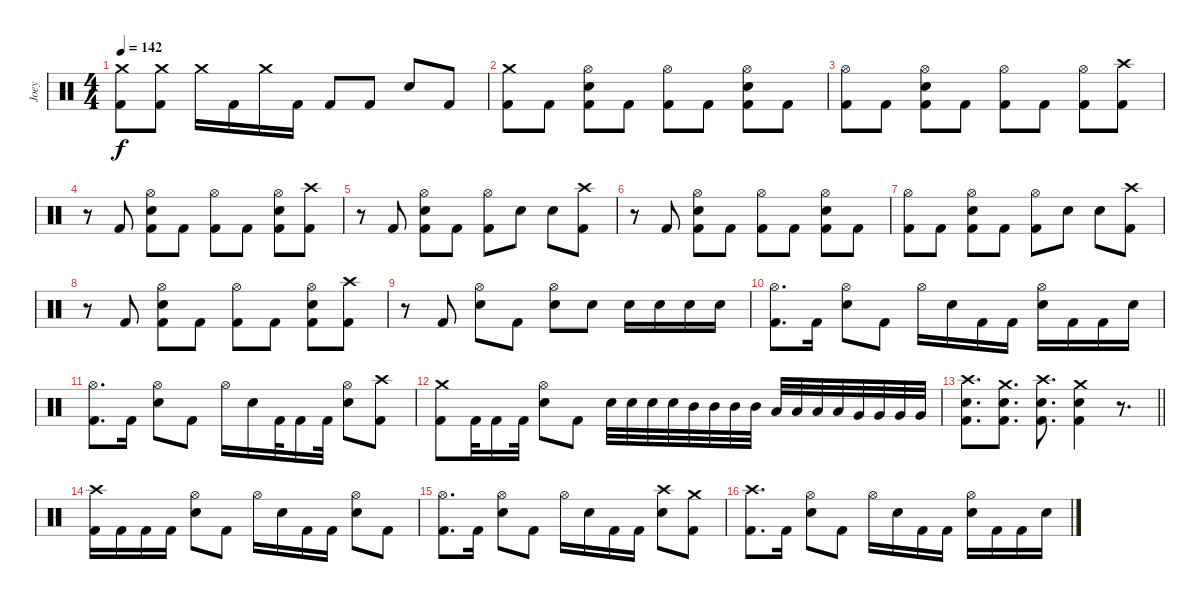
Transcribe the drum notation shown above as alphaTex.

\track ("Joey" "Joey") {instrument percussion}
\staff {score}
\articulation defaults
\ts (4 4)
\tempo 142
\clef neutral
\ks c
("Crash medium (hit)" "Kick (hit) 2").8{dy f} ("Crash medium (hit)" "Kick (hit) 2").8 "Crash medium (hit)".16 "Kick (hit) 2".16 "Crash medium (hit)".16 "Kick (hit) 2".16 "Kick (hit) 2".8 "Kick (hit) 2".8 "Electric Snare (hit)".8 "Kick (hit) 2".8 |
("Crash medium (hit)" "Kick (hit) 2").8 "Kick (hit) 2".8 ("Hi-Hat (open)" "Electric Snare (hit)" "Kick (hit) 2").8 "Kick (hit) 2".8 ("Hi-Hat (open)" "Kick (hit) 2").8 "Kick (hit) 2".8 ("Hi-Hat (open)" "Electric Snare (hit)" "Kick (hit) 2").8 "Kick (hit) 2".8 |
("Hi-Hat (open)" "Kick (hit) 2").8 "Kick (hit) 2".8 ("Hi-Hat (open)" "Electric Snare (hit)" "Kick (hit) 2").8 "Kick (hit) 2".8 ("Hi-Hat (open)" "Kick (hit) 2").8 "Kick (hit) 2".8 ("Hi-Hat (open)" "Kick (hit) 2").8 ("Crash high (hit)" "Kick (hit) 2").8 |
r.8 "Kick (hit) 2".8 ("Hi-Hat (open)" "Electric Snare (hit)" "Kick (hit) 2").8 "Kick (hit) 2".8 ("Hi-Hat (open)" "Kick (hit) 2").8 "Kick (hit) 2".8 ("Hi-Hat (open)" "Electric Snare (hit)" "Kick (hit) 2").8 ("Crash high (hit)" "Kick (hit) 2").8 |
r.8 "Kick (hit) 2".8 ("Hi-Hat (open)" "Electric Snare (hit)" "Kick (hit) 2").8 "Kick (hit) 2".8 ("Hi-Hat (open)" "Kick (hit) 2").8 "Electric Snare (hit)".8 "Electric Snare (hit)".8 ("Crash high (hit)" "Kick (hit) 2").8 |
r.8 "Kick (hit) 2".8 ("Hi-Hat (open)" "Electric Snare (hit)" "Kick (hit) 2").8 "Kick (hit) 2".8 ("Hi-Hat (open)" "Kick (hit) 2").8 "Kick (hit) 2".8 ("Hi-Hat (open)" "Electric Snare (hit)" "Kick (hit) 2").8 "Kick (hit) 2".8 |
("Hi-Hat (open)" "Kick (hit) 2").8 "Kick (hit) 2".8 ("Hi-Hat (open)" "Electric Snare (hit)" "Kick (hit) 2").8 "Kick (hit) 2".8 ("Hi-Hat (open)" "Kick (hit) 2").8 "Electric Snare (hit)".8 "Electric Snare (hit)".8 ("Crash high (hit)" "Kick (hit) 2").8 |
r.8 "Kick (hit) 2".8 ("Hi-Hat (open)" "Electric Snare (hit)" "Kick (hit) 2").8 "Kick (hit) 2".8 ("Hi-Hat (open)" "Kick (hit) 2").8 "Kick (hit) 2".8 ("Hi-Hat (open)" "Electric Snare (hit)" "Kick (hit) 2").8 ("Crash high (hit)" "Kick (hit) 2").8 |
r.8 "Kick (hit) 2".8 ("Hi-Hat (open)" "Electric Snare (hit)").8 "Kick (hit) 2".8 ("Hi-Hat (open)" "Electric Snare (hit)").8 "Electric Snare (hit)".8 "Electric Snare (hit)".16 "Electric Snare (hit)".16 "Electric Snare (hit)".16 "Electric Snare (hit)".16 |
("Hi-Hat (open)" "Kick (hit) 2").8{d} "Kick (hit) 2".16 ("Hi-Hat (open)" "Electric Snare (hit)").8 "Kick (hit) 2".8 "Hi-Hat (open)".16 "Electric Snare (hit)".16 "Kick (hit) 2".16 "Kick (hit) 2".16 ("Hi-Hat (open)" "Electric Snare (hit)").16 "Kick (hit) 2".16 "Kick (hit) 2".16 "Electric Snare (hit)".16 |
("Hi-Hat (open)" "Kick (hit) 2").8{d} "Kick (hit) 2".16 ("Hi-Hat (open)" "Electric Snare (hit)").8 "Kick (hit) 2".8 "Hi-Hat (open)".16 "Electric Snare (hit)".16 "Kick (hit) 2".32 "Kick (hit) 2".16 "Kick (hit) 2".32 ("Hi-Hat (open)" "Electric Snare (hit)").8 ("Crash high (hit)" "Kick (hit) 2").8 |
("Crash medium (hit)" "Kick (hit) 2").8 "Kick (hit) 2".32 "Kick (hit) 2".16 "Kick (hit) 2".32 ("Hi-Hat (open)" "Electric Snare (hit)").8 "Kick (hit) 2".8 "Electric Snare (hit)".32 "Electric Snare (hit)".32 "Electric Snare (hit)".32 "Electric Snare (hit)".32 "Mid Tom (hit)".32 "Mid Tom (hit)".32 "Mid Tom (hit)".32 "Mid Tom (hit)".32 "Low Floor Tom (hit)".32 "Low Floor Tom (hit)".32 "Low Floor Tom (hit)".32 "Low Floor Tom (hit)".32 "Very Low Tom (hit)".32 "Very Low Tom (hit)".32 "Very Low Tom (hit)".32 "Very Low Tom (hit)".32 |
\barLineRight lightlight
("Crash high (hit)" "Electric Snare (hit)" "Kick (hit) 2").8{d} ("Crash medium (hit)" "Electric Snare (hit)" "Kick (hit) 2").8{d} ("Crash high (hit)" "Electric Snare (hit)" "Kick (hit) 2").8{d} ("Crash medium (hit)" "Electric Snare (hit)" "Kick (hit) 2").4 r.8{d} |
("Crash high (hit)" "Kick (hit) 2").16 "Kick (hit) 2".16 "Kick (hit) 2".16 "Kick (hit) 2".16 ("Hi-Hat (open)" "Electric Snare (hit)").8 "Kick (hit) 2".8 "Hi-Hat (open)".16 "Electric Snare (hit)".16 "Kick (hit) 2".16 "Kick (hit) 2".16 ("Hi-Hat (open)" "Electric Snare (hit)").8 "Kick (hit) 2".8 |
("Hi-Hat (open)" "Kick (hit) 2").8{d} "Kick (hit) 2".16 ("Hi-Hat (open)" "Electric Snare (hit)").8 "Kick (hit) 2".8 "Hi-Hat (open)".16 "Electric Snare (hit)".16 "Kick (hit) 2".16 "Kick (hit) 2".16 ("Crash high (hit)" "Electric Snare (hit)").8 ("Crash medium (hit)" "Kick (hit) 2").8 |
("Crash high (hit)" "Kick (hit) 2").8{d} "Kick (hit) 2".16 ("Hi-Hat (open)" "Electric Snare (hit)").8 "Kick (hit) 2".8 "Hi-Hat (open)".16 "Electric Snare (hit)".16 "Kick (hit) 2".16 "Kick (hit) 2".16 ("Hi-Hat (open)" "Electric Snare (hit)").16 "Kick (hit) 2".16 "Kick (hit) 2".16 "Electric Snare (hit)".16
